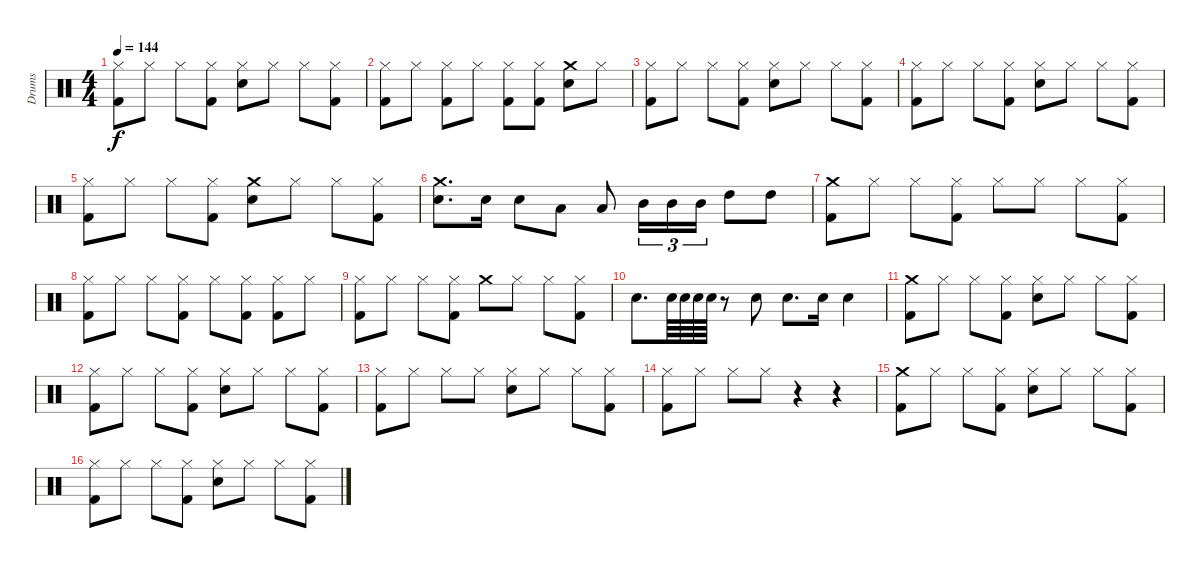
\track ("Drums" "Drums") {instrument percussion}
\staff {score}
\articulation defaults
\ts (4 4)
\tempo 144
\clef neutral
\ks c
("Kick (hit) 2" "Hi-Hat (closed)").8{dy f} "Hi-Hat (closed)".8 "Hi-Hat (closed)".8 ("Kick (hit) 2" "Hi-Hat (closed)").8 ("Snare (hit) 2" "Hi-Hat (closed)").8 "Hi-Hat (closed)".8 "Hi-Hat (closed)".8 ("Kick (hit) 2" "Hi-Hat (closed)").8 |
("Kick (hit) 2" "Hi-Hat (closed)").8 "Hi-Hat (closed)".8 ("Kick (hit) 2" "Hi-Hat (closed)").8 "Hi-Hat (closed)".8 ("Kick (hit) 2" "Hi-Hat (closed)").8 ("Kick (hit) 2" "Hi-Hat (closed)").8 ("Snare (hit) 2" "Crash medium (hit)").8 "Hi-Hat (closed)".8 |
("Kick (hit) 2" "Hi-Hat (closed)").8 "Hi-Hat (closed)".8 "Hi-Hat (closed)".8 ("Kick (hit) 2" "Hi-Hat (closed)").8 ("Snare (hit) 2" "Hi-Hat (closed)").8 "Hi-Hat (closed)".8 "Hi-Hat (closed)".8 ("Kick (hit) 2" "Hi-Hat (closed)").8 |
("Kick (hit) 2" "Hi-Hat (closed)").8 "Hi-Hat (closed)".8 "Hi-Hat (closed)".8 ("Kick (hit) 2" "Hi-Hat (closed)").8 ("Snare (hit) 2" "Hi-Hat (closed)").8 "Hi-Hat (closed)".8 "Hi-Hat (closed)".8 ("Kick (hit) 2" "Hi-Hat (closed)").8 |
("Kick (hit) 2" "Hi-Hat (closed)").8 "Hi-Hat (closed)".8 "Hi-Hat (closed)".8 ("Kick (hit) 2" "Hi-Hat (closed)").8 ("Crash medium (hit)" "Snare (hit) 2").8 "Hi-Hat (closed)".8 "Hi-Hat (closed)".8 ("Kick (hit) 2" "Hi-Hat (closed)").8 |
("Snare (hit) 2" "Crash medium (hit)").8{d} "Snare (hit) 2".16 "Snare (hit) 2".8 "Low Tom (hit)".8 "Low Tom (hit)".8 "Mid Tom (hit)".16{tu (3 2)} "Mid Tom (hit)".16{tu (3 2)} "Mid Tom (hit)".16{tu (3 2)} "High Tom (hit)".8 "High Tom (hit)".8 |
("Kick (hit) 2" "Crash medium (hit)").8 "Hi-Hat (closed)".8 "Hi-Hat (closed)".8 ("Kick (hit) 2" "Hi-Hat (closed)").8 "Hi-Hat (closed)".8 "Hi-Hat (closed)".8 "Hi-Hat (closed)".8 ("Kick (hit) 2" "Hi-Hat (closed)").8 |
("Kick (hit) 2" "Hi-Hat (closed)").8 "Hi-Hat (closed)".8 "Hi-Hat (closed)".8 ("Kick (hit) 2" "Hi-Hat (closed)").8 "Hi-Hat (closed)".8 ("Kick (hit) 2" "Hi-Hat (closed)").8 ("Kick (hit) 2" "Hi-Hat (closed)").8 "Hi-Hat (closed)".8 |
("Kick (hit) 2" "Hi-Hat (closed)").8 "Hi-Hat (closed)".8 "Hi-Hat (closed)".8 ("Kick (hit) 2" "Hi-Hat (closed)").8 "Crash medium (hit)".8 "Hi-Hat (closed)".8 "Hi-Hat (closed)".8 ("Kick (hit) 2" "Hi-Hat (closed)").8 |
"Snare (hit) 2".8{d} "Snare (hit) 2".64 "Snare (hit) 2".64 "Snare (hit) 2".64 "Snare (hit) 2".64 r.8 "Snare (hit) 2".8 "Snare (hit) 2".8{d} "Snare (hit) 2".16 "Snare (hit) 2".4 |
("Crash medium (hit)" "Kick (hit) 2").8 "Hi-Hat (closed)".8 "Hi-Hat (closed)".8 ("Kick (hit) 2" "Hi-Hat (closed)").8 ("Snare (hit) 2" "Hi-Hat (closed)").8 "Hi-Hat (closed)".8 "Hi-Hat (closed)".8 ("Kick (hit) 2" "Hi-Hat (closed)").8 |
("Hi-Hat (closed)" "Kick (hit) 2").8 "Hi-Hat (closed)".8 "Hi-Hat (closed)".8 ("Kick (hit) 2" "Hi-Hat (closed)").8 ("Snare (hit) 2" "Hi-Hat (closed)").8 "Hi-Hat (closed)".8 "Hi-Hat (closed)".8 ("Kick (hit) 2" "Hi-Hat (closed)").8 |
("Hi-Hat (closed)" "Kick (hit) 2").8 "Hi-Hat (closed)".8 "Hi-Hat (closed)".8 "Hi-Hat (closed)".8 ("Snare (hit) 2" "Hi-Hat (closed)").8 "Hi-Hat (closed)".8 "Hi-Hat (closed)".8 ("Kick (hit) 2" "Hi-Hat (closed)").8 |
("Hi-Hat (closed)" "Kick (hit) 2").8 "Hi-Hat (closed)".8 "Hi-Hat (closed)".8 "Hi-Hat (closed)".8 r.4 r.4 |
("Kick (hit) 2" "Crash medium (hit)").8 "Hi-Hat (closed)".8 "Hi-Hat (closed)".8 ("Kick (hit) 2" "Hi-Hat (closed)").8 ("Snare (hit) 2" "Hi-Hat (closed)").8 "Hi-Hat (closed)".8 "Hi-Hat (closed)".8 ("Kick (hit) 2" "Hi-Hat (closed)").8 |
("Hi-Hat (closed)" "Kick (hit) 2").8 "Hi-Hat (closed)".8 "Hi-Hat (closed)".8 ("Kick (hit) 2" "Hi-Hat (closed)").8 ("Snare (hit) 2" "Hi-Hat (closed)").8 "Hi-Hat (closed)".8 "Hi-Hat (closed)".8 ("Kick (hit) 2" "Hi-Hat (closed)").8
